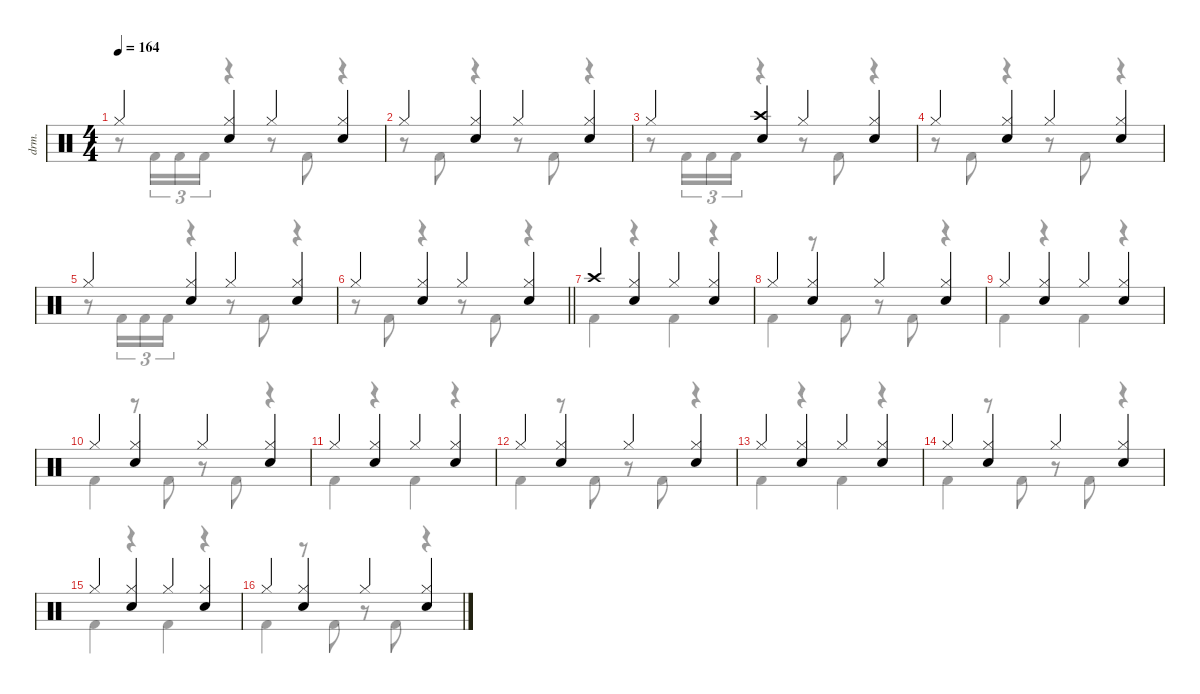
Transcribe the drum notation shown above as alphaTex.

\defaultSystemsLayout 4
\hideDynamics
\bracketExtendMode nobrackets
\otherSystemsTrackNameOrientation horizontal
\track ("Lars Ulrich" "drm.") {defaultSystemsLayout 8 instrument percussion}
\staff {score}
\articulation defaults
\voice
\ts (4 4)
\tempo 164
\clef neutral
\ks aminor "Hi-Hat (closed)".4{dy f beam Up}
("Hi-Hat (closed)" "Snare (hit) 2").4{beam Up} "Hi-Hat (closed)".4{beam Up} ("Hi-Hat (closed)" "Snare (hit) 2").4{beam Up} |
"Hi-Hat (closed)".4{beam Up} ("Hi-Hat (closed)" "Snare (hit) 2").4{beam Up} "Hi-Hat (closed)".4{beam Up} ("Hi-Hat (closed)" "Snare (hit) 2").4{beam Up} |
"Hi-Hat (closed)".4{beam Up} ("Crash high (hit)" "Snare (hit) 2").4{beam Up} "Hi-Hat (closed)".4{beam Up} ("Hi-Hat (closed)" "Snare (hit) 2").4{beam Up} |
"Hi-Hat (closed)".4{beam Up} ("Hi-Hat (closed)" "Snare (hit) 2").4{beam Up} "Hi-Hat (closed)".4{beam Up} ("Hi-Hat (closed)" "Snare (hit) 2").4{beam Up} |
"Hi-Hat (closed)".4{beam Up} ("Hi-Hat (closed)" "Snare (hit) 2").4{beam Up} "Hi-Hat (closed)".4{beam Up} ("Hi-Hat (closed)" "Snare (hit) 2").4{beam Up} |
\barLineRight lightlight "Hi-Hat (closed)".4{beam Up}
("Hi-Hat (closed)" "Snare (hit) 2").4{beam Up} "Hi-Hat (closed)".4{beam Up} ("Hi-Hat (closed)" "Snare (hit) 2").4{beam Up} |
"Crash high (hit)".4{beam Up} ("Hi-Hat (closed)" "Snare (hit) 2").4{beam Up} "Hi-Hat (closed)".4{beam Up} ("Hi-Hat (closed)" "Snare (hit) 2").4{beam Up} |
"Hi-Hat (closed)".4{beam Up} ("Hi-Hat (closed)" "Snare (hit) 2").4{beam Up} "Hi-Hat (closed)".4{beam Up} ("Hi-Hat (closed)" "Snare (hit) 2").4{beam Up} |
"Hi-Hat (closed)".4{beam Up} ("Hi-Hat (closed)" "Snare (hit) 2").4{beam Up} "Hi-Hat (closed)".4{beam Up} ("Hi-Hat (closed)" "Snare (hit) 2").4{beam Up} |
"Hi-Hat (closed)".4{beam Up} ("Hi-Hat (closed)" "Snare (hit) 2").4{beam Up} "Hi-Hat (closed)".4{beam Up} ("Hi-Hat (closed)" "Snare (hit) 2").4{beam Up} |
"Hi-Hat (closed)".4{beam Up} ("Hi-Hat (closed)" "Snare (hit) 2").4{beam Up} "Hi-Hat (closed)".4{beam Up} ("Hi-Hat (closed)" "Snare (hit) 2").4{beam Up} |
"Hi-Hat (closed)".4{beam Up} ("Hi-Hat (closed)" "Snare (hit) 2").4{beam Up} "Hi-Hat (closed)".4{beam Up} ("Hi-Hat (closed)" "Snare (hit) 2").4{beam Up} |
"Hi-Hat (closed)".4{beam Up} ("Hi-Hat (closed)" "Snare (hit) 2").4{beam Up} "Hi-Hat (closed)".4{beam Up} ("Hi-Hat (closed)" "Snare (hit) 2").4{beam Up} |
"Hi-Hat (closed)".4{beam Up} ("Hi-Hat (closed)" "Snare (hit) 2").4{beam Up} "Hi-Hat (closed)".4{beam Up} ("Hi-Hat (closed)" "Snare (hit) 2").4{beam Up} |
"Hi-Hat (closed)".4{beam Up} ("Hi-Hat (closed)" "Snare (hit) 2").4{beam Up} "Hi-Hat (closed)".4{beam Up} ("Hi-Hat (closed)" "Snare (hit) 2").4{beam Up} |
"Hi-Hat (closed)".4{beam Up} ("Hi-Hat (closed)" "Snare (hit) 2").4{beam Up} "Hi-Hat (closed)".4{beam Up} ("Hi-Hat (closed)" "Snare (hit) 2").4{beam Up}
\voice
\clef neutral
\ottava regular
\simile none
\ks aminor
r.8{dy f beam Down} "Kick (hit) 2".16{tu (3 2) beam Down} "Kick (hit) 2".16{tu (3 2) beam Down} "Kick (hit) 2".16{tu (3 2) beam Down} r.4{beam Down} r.8{beam Down} "Kick (hit) 2".8{beam Down} r.4{beam Down} |
r.8{beam Down} "Kick (hit) 2".8{beam Down} r.4{beam Down} r.8{beam Down} "Kick (hit) 2".8{beam Down} r.4{beam Down} |
r.8{beam Down} "Kick (hit) 2".16{tu (3 2) beam Down} "Kick (hit) 2".16{tu (3 2) beam Down} "Kick (hit) 2".16{tu (3 2) beam Down} r.4{beam Down} r.8{beam Down} "Kick (hit) 2".8{beam Down} r.4{beam Down} |
r.8{beam Down} "Kick (hit) 2".8{beam Down} r.4{beam Down} r.8{beam Down} "Kick (hit) 2".8{beam Down} r.4{beam Down} |
r.8{beam Down} "Kick (hit) 2".16{tu (3 2) beam Down} "Kick (hit) 2".16{tu (3 2) beam Down} "Kick (hit) 2".16{tu (3 2) beam Down} r.4{beam Down} r.8{beam Down} "Kick (hit) 2".8{beam Down} r.4{beam Down} |
\barLineRight lightlight
r.8{beam Down} "Kick (hit) 2".8{beam Down} r.4{beam Down} r.8{beam Down} "Kick (hit) 2".8{beam Down} r.4{beam Down} |
"Kick (hit) 2".4{beam Down} r.4{beam Down} "Kick (hit) 2".4{beam Down} r.4{beam Down} |
"Kick (hit) 2".4{beam Down} r.8{beam Down} "Kick (hit) 2".8{beam Down} r.8{beam Down} "Kick (hit) 2".8{beam Down} r.4{beam Down} |
"Kick (hit) 2".4{beam Down} r.4{beam Down} "Kick (hit) 2".4{beam Down} r.4{beam Down} |
"Kick (hit) 2".4{beam Down} r.8{beam Down} "Kick (hit) 2".8{beam Down} r.8{beam Down} "Kick (hit) 2".8{beam Down} r.4{beam Down} |
"Kick (hit) 2".4{beam Down} r.4{beam Down} "Kick (hit) 2".4{beam Down} r.4{beam Down} |
"Kick (hit) 2".4{beam Down} r.8{beam Down} "Kick (hit) 2".8{beam Down} r.8{beam Down} "Kick (hit) 2".8{beam Down} r.4{beam Down} |
"Kick (hit) 2".4{beam Down} r.4{beam Down} "Kick (hit) 2".4{beam Down} r.4{beam Down} |
"Kick (hit) 2".4{beam Down} r.8{beam Down} "Kick (hit) 2".8{beam Down} r.8{beam Down} "Kick (hit) 2".8{beam Down} r.4{beam Down} |
"Kick (hit) 2".4{beam Down} r.4{beam Down} "Kick (hit) 2".4{beam Down} r.4{beam Down} |
"Kick (hit) 2".4{beam Down} r.8{beam Down} "Kick (hit) 2".8{beam Down} r.8{beam Down} "Kick (hit) 2".8{beam Down} r.4{beam Down}
